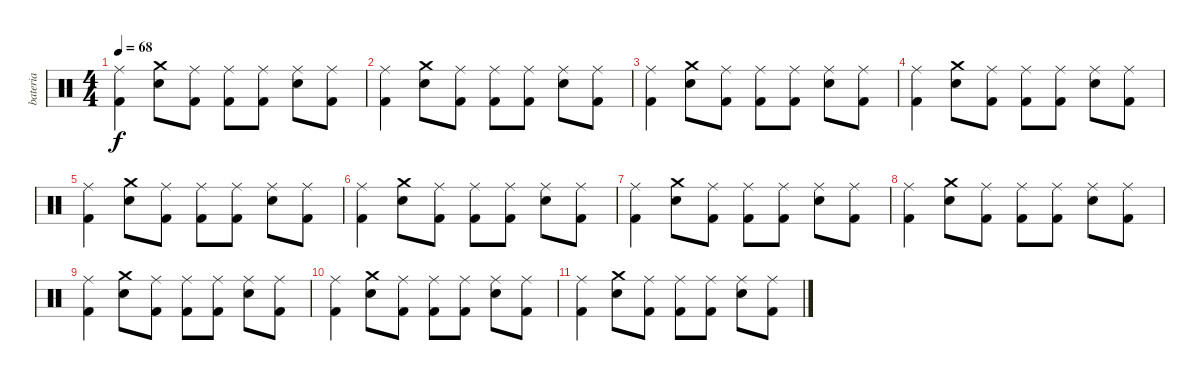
\track ("bateria" "bateria") {instrument percussion}
\staff {score}
\articulation defaults
\ts (4 4)
\tempo 68
\clef neutral
\ks c
("Ride (middle)" "Kick (hit) 2").4{dy f} ("Crash medium (hit)" "Snare (hit) 2").8 ("Ride (middle)" "Kick (hit) 2").8 ("Ride (middle)" "Kick (hit) 2").8 ("Ride (middle)" "Kick (hit) 2").8 ("Ride (middle)" "Snare (hit) 2").8 ("Ride (middle)" "Kick (hit) 2").8 |
("Ride (middle)" "Kick (hit) 2").4 ("Crash medium (hit)" "Snare (hit) 2").8 ("Ride (middle)" "Kick (hit) 2").8 ("Ride (middle)" "Kick (hit) 2").8 ("Ride (middle)" "Kick (hit) 2").8 ("Ride (middle)" "Snare (hit) 2").8 ("Ride (middle)" "Kick (hit) 2").8 |
("Ride (middle)" "Kick (hit) 2").4 ("Crash medium (hit)" "Snare (hit) 2").8 ("Ride (middle)" "Kick (hit) 2").8 ("Ride (middle)" "Kick (hit) 2").8 ("Ride (middle)" "Kick (hit) 2").8 ("Ride (middle)" "Snare (hit) 2").8 ("Ride (middle)" "Kick (hit) 2").8 |
("Ride (middle)" "Kick (hit) 2").4 ("Crash medium (hit)" "Snare (hit) 2").8 ("Ride (middle)" "Kick (hit) 2").8 ("Ride (middle)" "Kick (hit) 2").8 ("Ride (middle)" "Kick (hit) 2").8 ("Ride (middle)" "Snare (hit) 2").8 ("Ride (middle)" "Kick (hit) 2").8 |
("Ride (middle)" "Kick (hit) 2").4 ("Crash medium (hit)" "Snare (hit) 2").8 ("Ride (middle)" "Kick (hit) 2").8 ("Ride (middle)" "Kick (hit) 2").8 ("Ride (middle)" "Kick (hit) 2").8 ("Ride (middle)" "Snare (hit) 2").8 ("Ride (middle)" "Kick (hit) 2").8 |
("Ride (middle)" "Kick (hit) 2").4 ("Crash medium (hit)" "Snare (hit) 2").8 ("Ride (middle)" "Kick (hit) 2").8 ("Ride (middle)" "Kick (hit) 2").8 ("Ride (middle)" "Kick (hit) 2").8 ("Ride (middle)" "Snare (hit) 2").8 ("Ride (middle)" "Kick (hit) 2").8 |
("Ride (middle)" "Kick (hit) 2").4 ("Crash medium (hit)" "Snare (hit) 2").8 ("Ride (middle)" "Kick (hit) 2").8 ("Ride (middle)" "Kick (hit) 2").8 ("Ride (middle)" "Kick (hit) 2").8 ("Ride (middle)" "Snare (hit) 2").8 ("Ride (middle)" "Kick (hit) 2").8 |
("Ride (middle)" "Kick (hit) 2").4 ("Crash medium (hit)" "Snare (hit) 2").8 ("Ride (middle)" "Kick (hit) 2").8 ("Ride (middle)" "Kick (hit) 2").8 ("Ride (middle)" "Kick (hit) 2").8 ("Ride (middle)" "Snare (hit) 2").8 ("Ride (middle)" "Kick (hit) 2").8 |
("Ride (middle)" "Kick (hit) 2").4 ("Crash medium (hit)" "Snare (hit) 2").8 ("Ride (middle)" "Kick (hit) 2").8 ("Ride (middle)" "Kick (hit) 2").8 ("Ride (middle)" "Kick (hit) 2").8 ("Ride (middle)" "Snare (hit) 2").8 ("Ride (middle)" "Kick (hit) 2").8 |
("Ride (middle)" "Kick (hit) 2").4 ("Crash medium (hit)" "Snare (hit) 2").8 ("Ride (middle)" "Kick (hit) 2").8 ("Ride (middle)" "Kick (hit) 2").8 ("Ride (middle)" "Kick (hit) 2").8 ("Ride (middle)" "Snare (hit) 2").8 ("Ride (middle)" "Kick (hit) 2").8 |
("Ride (middle)" "Kick (hit) 2").4 ("Crash medium (hit)" "Snare (hit) 2").8 ("Ride (middle)" "Kick (hit) 2").8 ("Ride (middle)" "Kick (hit) 2").8 ("Ride (middle)" "Kick (hit) 2").8 ("Ride (middle)" "Snare (hit) 2").8 ("Ride (middle)" "Kick (hit) 2").8
